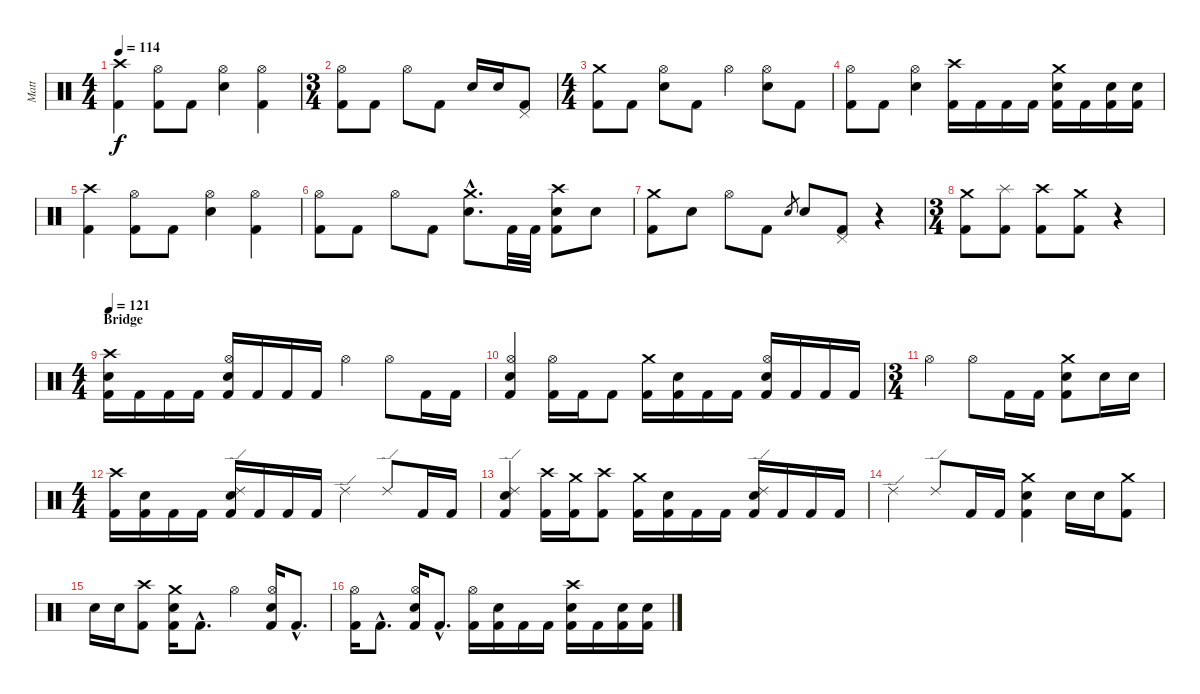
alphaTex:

\track ("Matt" "Matt") {instrument percussion}
\staff {score}
\articulation defaults
\ts (4 4)
\tempo 114
\clef neutral
\ks c
("Crash high (hit)" "Kick (hit) 2").4{dy f} ("Hi-Hat (open)" "Kick (hit) 2").8 "Kick (hit) 2".8 ("Hi-Hat (open)" "Electric Snare (hit)").4 ("Hi-Hat (open)" "Kick (hit) 2").4 |
\ts (3 4)
("Hi-Hat (open)" "Kick (hit) 2").8 "Kick (hit) 2".8 "Hi-Hat (open)".8 "Kick (hit) 2".8 "Electric Snare (hit)".16 "Electric Snare (hit)".16 ("Pedal Hi-Hat (hit)" "Kick (hit) 2").8 |
\ts (4 4)
("Crash medium (hit)" "Kick (hit) 2").8 "Kick (hit) 2".8 ("Hi-Hat (open)" "Electric Snare (hit)").8 "Kick (hit) 2".8 "Hi-Hat (open)".4 ("Hi-Hat (open)" "Electric Snare (hit)").8 "Kick (hit) 2".8 |
("Hi-Hat (open)" "Kick (hit) 2").8 "Kick (hit) 2".8 ("Hi-Hat (open)" "Electric Snare (hit)").4 ("Crash high (hit)" "Kick (hit) 2").16 "Kick (hit) 2".16 "Kick (hit) 2".16 "Kick (hit) 2".16 ("Crash medium (hit)" "Electric Snare (hit)" "Kick (hit) 2").16 "Kick (hit) 2".16 ("Electric Snare (hit)" "Kick (hit) 2").16 ("Electric Snare (hit)" "Kick (hit) 2").16 |
("Crash high (hit)" "Kick (hit) 2").4 ("Hi-Hat (open)" "Kick (hit) 2").8 "Kick (hit) 2".8 ("Hi-Hat (open)" "Electric Snare (hit)").4 ("Hi-Hat (open)" "Kick (hit) 2").4 |
("Hi-Hat (open)" "Kick (hit) 2").8 "Kick (hit) 2".8 "Hi-Hat (open)".8 "Kick (hit) 2".8 ("Crash medium (hit)"{hac} "Electric Snare (hit)"{hac}).8{d} "Kick (hit) 2".32 "Kick (hit) 2".32 ("Crash high (hit)" "Electric Snare (hit)" "Kick (hit) 2").8 "Electric Snare (hit)".8 |
("Crash medium (hit)" "Kick (hit) 2").8 "Electric Snare (hit)".8 "Hi-Hat (open)".8 "Kick (hit) 2".8 "Electric Snare (hit)".8{gr} "Electric Snare (hit)".8 ("Pedal Hi-Hat (hit)" "Kick (hit) 2").8 r.4 |
\ts (3 4)
("Crash medium (hit)" "Kick (hit) 2").8 ("Splash (hit)" "Kick (hit) 2").8 ("Crash high (hit)" "Kick (hit) 2").8 ("Crash medium (hit)" "Kick (hit) 2").8 r.4 |
\ts (4 4)
\section ("" "Bridge")
\tempo 121
("Crash high (hit)" "Electric Snare (hit)" "Kick (hit) 2").16 "Kick (hit) 2".16 "Kick (hit) 2".16 "Kick (hit) 2".16 ("Hi-Hat (open)" "Electric Snare (hit)" "Kick (hit) 2").16 "Kick (hit) 2".16 "Kick (hit) 2".16 "Kick (hit) 2".16 "Hi-Hat (open)".4 "Hi-Hat (open)".8 "Kick (hit) 2".16 "Kick (hit) 2".16 |
("Hi-Hat (open)" "Electric Snare (hit)" "Kick (hit) 2").4 ("Hi-Hat (open)" "Kick (hit) 2").16 "Kick (hit) 2".16 "Kick (hit) 2".8 ("Crash medium (hit)" "Kick (hit) 2").16 ("Electric Snare (hit)" "Kick (hit) 2").16 "Kick (hit) 2".16 "Kick (hit) 2".16 ("Hi-Hat (open)" "Electric Snare (hit)" "Kick (hit) 2").16 "Kick (hit) 2".16 "Kick (hit) 2".16 "Kick (hit) 2".16 |
\ts (3 4)
"Hi-Hat (open)".4 "Hi-Hat (open)".8 "Kick (hit) 2".16 "Kick (hit) 2".16 ("Crash medium (hit)" "Electric Snare (hit)" "Kick (hit) 2").8 "Electric Snare (hit)".16 "Electric Snare (hit)".16 |
\ts (4 4)
("Crash high (hit)" "Kick (hit) 2").16 ("Electric Snare (hit)" "Kick (hit) 2").16 "Kick (hit) 2".16 "Kick (hit) 2".16 ("Ride (edge) 2" "Electric Snare (hit)" "Kick (hit) 2").16 "Kick (hit) 2".16 "Kick (hit) 2".16 "Kick (hit) 2".16 "Ride (edge) 2".4 "Ride (edge) 2".8 "Kick (hit) 2".16 "Kick (hit) 2".16 |
("Ride (edge) 2" "Electric Snare (hit)" "Kick (hit) 2").4 ("Crash high (hit)" "Kick (hit) 2").16 ("Crash medium (hit)" "Kick (hit) 2").16 ("Crash high (hit)" "Kick (hit) 2").8 ("Crash medium (hit)" "Kick (hit) 2").16 ("Electric Snare (hit)" "Kick (hit) 2").16 "Kick (hit) 2".16 "Kick (hit) 2".16 ("Ride (edge) 2" "Electric Snare (hit)" "Kick (hit) 2").16 "Kick (hit) 2".16 "Kick (hit) 2".16 "Kick (hit) 2".16 |
"Ride (edge) 2".4 "Ride (edge) 2".8 "Kick (hit) 2".16 "Kick (hit) 2".16 ("Crash medium (hit)" "Electric Snare (hit)" "Kick (hit) 2").4 "Electric Snare (hit)".16 "Electric Snare (hit)".16 ("Crash medium (hit)" "Kick (hit) 2").8 |
"Electric Snare (hit)".16 "Electric Snare (hit)".16 ("Crash high (hit)" "Kick (hit) 2").8 ("Crash medium (hit)" "Electric Snare (hit)" "Kick (hit) 2").16 "Kick (hit) 2"{hac}.8{d} "Hi-Hat (open)".4 ("Hi-Hat (open)" "Electric Snare (hit)" "Kick (hit) 2").16 "Kick (hit) 2"{hac}.8{d} |
("Hi-Hat (open)" "Kick (hit) 2").16 "Kick (hit) 2"{hac}.8{d} ("Hi-Hat (open)" "Electric Snare (hit)" "Kick (hit) 2").16 "Kick (hit) 2"{hac}.8{d} ("Hi-Hat (open)" "Kick (hit) 2").16 ("Electric Snare (hit)" "Kick (hit) 2").16 "Kick (hit) 2".16 "Kick (hit) 2".16 ("Crash high (hit)" "Electric Snare (hit)" "Kick (hit) 2").16 "Kick (hit) 2".16 ("Electric Snare (hit)" "Kick (hit) 2").16 ("Electric Snare (hit)" "Kick (hit) 2").16
